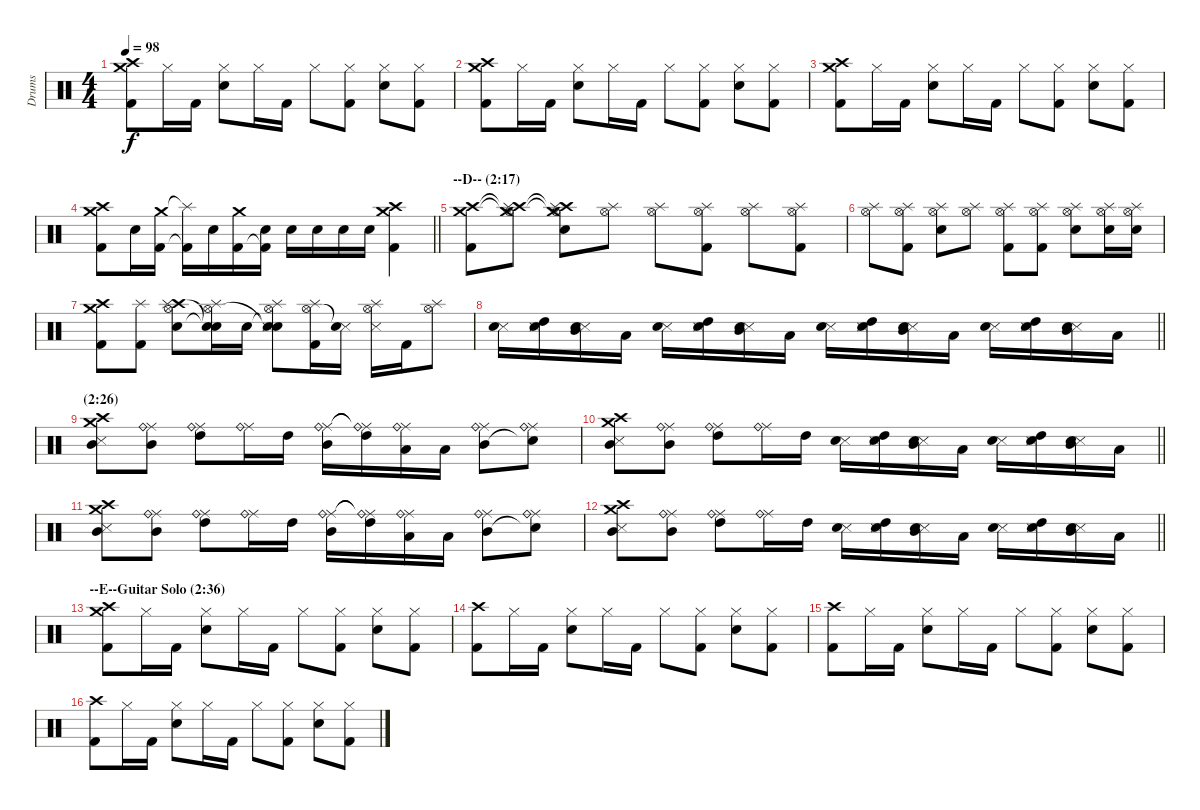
\track ("Drums" "Drums") {instrument percussion}
\staff {score}
\articulation defaults
\ts (4 4)
\tempo 98
\clef neutral
\ks c
("Crash high (hit)" "Crash medium (hit)" "Kick (hit) 2").8{dy f} "Hi-Hat (closed)".16 "Kick (hit) 2".16 ("Hi-Hat (closed)" "Electric Snare (hit)").8 "Hi-Hat (closed)".16 "Kick (hit) 2".16 "Hi-Hat (closed)".8 ("Hi-Hat (closed)" "Kick (hit) 2").8 ("Hi-Hat (closed)" "Electric Snare (hit)").8 ("Hi-Hat (closed)" "Kick (hit) 2").8 |
("Crash high (hit)" "Crash medium (hit)" "Kick (hit) 2").8 "Hi-Hat (closed)".16 "Kick (hit) 2".16 ("Hi-Hat (closed)" "Electric Snare (hit)").8 "Hi-Hat (closed)".16 "Kick (hit) 2".16 "Hi-Hat (closed)".8 ("Hi-Hat (closed)" "Kick (hit) 2").8 ("Hi-Hat (closed)" "Electric Snare (hit)").8 ("Hi-Hat (closed)" "Kick (hit) 2").8 |
("Crash high (hit)" "Crash medium (hit)" "Kick (hit) 2").8 "Hi-Hat (closed)".16 "Kick (hit) 2".16 ("Hi-Hat (closed)" "Electric Snare (hit)").8 "Hi-Hat (closed)".16 "Kick (hit) 2".16 "Hi-Hat (closed)".8 ("Hi-Hat (closed)" "Kick (hit) 2").8 ("Hi-Hat (closed)" "Electric Snare (hit)").8 ("Hi-Hat (closed)" "Kick (hit) 2").8 |
\barLineRight lightlight
("Crash high (hit)" "Crash medium (hit)" "Kick (hit) 2").8 "Electric Snare (hit)".16 ("Crash medium (hit)" "Kick (hit) 2").16 ("Splash (hit)"{t} "Kick (hit) 2"{t}).16 "Electric Snare (hit)".16 ("Crash medium (hit)" "Kick (hit) 2").16 ("Electric Snare (hit)" "Kick (hit) 2"{t}).16 "Electric Snare (hit)".16 "Electric Snare (hit)".16 "Electric Snare (hit)".16 "Electric Snare (hit)".16 ("Crash high (hit)" "Crash medium (hit)" "Kick (hit) 2").4 |
\section ("" "--D-- (2:17)")
("Crash high (hit)" "Crash medium (hit)" "Kick (hit) 2").8 ("Crash high (hit)"{t} "Crash medium (hit)"{t} "Hi-Hat (open)" "Splash (hit)").8 ("Crash high (hit)"{t} "Crash medium (hit)"{t} "Electric Snare (hit)" "Hi-Hat (open)" "Splash (hit)").8 ("Splash (hit)" "Hi-Hat (open)").8 ("Splash (hit)" "Hi-Hat (open)").8 ("Kick (hit) 2" "Hi-Hat (open)" "Splash (hit)").8 ("Splash (hit)" "Hi-Hat (open)").8 ("Kick (hit) 2" "Hi-Hat (open)" "Splash (hit)").8 |
("Hi-Hat (open)" "Splash (hit)").8 ("Kick (hit) 2" "Hi-Hat (open)" "Splash (hit)").8 ("Electric Snare (hit)" "Hi-Hat (open)" "Splash (hit)").8 ("Hi-Hat (open)" "Splash (hit)").8 ("Kick (hit) 2" "Hi-Hat (open)" "Splash (hit)").8 ("Kick (hit) 2" "Hi-Hat (open)" "Splash (hit)").8 ("Electric Snare (hit)" "Hi-Hat (open)" "Splash (hit)").8 ("Electric Snare (hit)" "Hi-Hat (open)" "Splash (hit)").16 ("Electric Snare (hit)" "Hi-Hat (open)" "Splash (hit)").16 |
("Crash high (hit)" "Crash medium (hit)" "Kick (hit) 2").8 ("Kick (hit) 2" "Splash (hit)").8 ("Crash high (hit)" "Electric Snare (hit)" "Hi-Hat (open)" "Splash (hit)").8 ("Snare (hit)"{t} "Snare (hit)"{t} "Hi-Hat (open)" "Splash (hit)").16 "Electric Snare (hit)".16 ("Snare (hit)"{t} "Snare (side stick) 3" "Snare (hit)"{t} "Hi-Hat (open)" "Splash (hit)").8 ("Kick (hit) 2" "Hi-Hat (open)" "Splash (hit)").16 ("Snare (side stick) 3" "Snare (hit)"{t}).16 ("Snare (side stick) 3" "Hi-Hat (open)" "Splash (hit)").16 "Kick (hit) 2".16 ("Hi-Hat (open)" "Splash (hit)").8 |
\barLineRight lightlight
("Snare (side stick) 3" "Electric Snare (hit)").16 ("Snare (side stick) 3" "Electric Snare (hit)" "High Tom (hit)").16 ("Snare (side stick) 3" "Electric Snare (hit)" "Mid Tom (hit)").16 "Low Tom (hit)".16 ("Snare (side stick) 3" "Electric Snare (hit)").16 ("Snare (side stick) 3" "Electric Snare (hit)" "High Tom (hit)").16 ("Snare (side stick) 3" "Electric Snare (hit)" "Mid Tom (hit)").16 "Low Tom (hit)".16 ("Snare (side stick) 3" "Electric Snare (hit)").16 ("Snare (side stick) 3" "Electric Snare (hit)" "High Tom (hit)").16 ("Snare (side stick) 3" "Electric Snare (hit)" "Mid Tom (hit)").16 "Low Tom (hit)".16 ("Snare (side stick) 3" "Electric Snare (hit)").16 ("Snare (side stick) 3" "Electric Snare (hit)" "High Tom (hit)").16 ("Snare (side stick) 3" "Electric Snare (hit)" "Mid Tom (hit)").16 "Low Tom (hit)".16 |
\section ("" "(2:26)")
("Crash high (hit)" "Crash medium (hit)" "Snare (side stick) 3" "Mid Tom (hit)").8 ("Ride (middle)" "Ride (bell)" "Mid Tom (hit)").8 ("Ride (middle)" "Ride (bell)" "High Tom (hit)").8 ("Ride (middle)" "Ride (bell)").16 "High Tom (hit)".16 ("Ride (middle)" "Ride (bell)" "Mid Tom (hit)").16 ("Ride (middle)"{t} "Ride (bell)"{t} "High Tom (hit)").16 ("Ride (middle)" "Ride (bell)" "Low Tom (hit)").16 "Low Tom (hit)".16 ("Ride (middle)" "Ride (bell)" "Mid Tom (hit)").8 ("Ride (middle)" "Ride (bell)" "Snare (hit)"{t}).8 |
\barLineRight lightlight
("Crash high (hit)" "Crash medium (hit)" "Snare (side stick) 3" "Mid Tom (hit)").8 ("Ride (middle)" "Ride (bell)" "Mid Tom (hit)").8 ("Ride (middle)" "Ride (bell)" "High Tom (hit)").8 ("Ride (middle)" "Ride (bell)").16 "High Tom (hit)".16 ("Snare (side stick) 3" "Electric Snare (hit)").16 ("Snare (side stick) 3" "Electric Snare (hit)" "High Tom (hit)").16 ("Snare (side stick) 3" "Electric Snare (hit)" "Mid Tom (hit)").16 "Low Tom (hit)".16 ("Snare (side stick) 3" "Electric Snare (hit)").16 ("Snare (side stick) 3" "Electric Snare (hit)" "High Tom (hit)").16 ("Snare (side stick) 3" "Electric Snare (hit)" "Mid Tom (hit)").16 "Low Tom (hit)".16 |
("Crash high (hit)" "Crash medium (hit)" "Snare (side stick) 3" "Mid Tom (hit)").8 ("Ride (middle)" "Ride (bell)" "Mid Tom (hit)").8 ("Ride (middle)" "Ride (bell)" "High Tom (hit)").8 ("Ride (middle)" "Ride (bell)").16 "High Tom (hit)".16 ("Ride (middle)" "Ride (bell)" "Mid Tom (hit)").16 ("Ride (middle)"{t} "Ride (bell)"{t} "High Tom (hit)").16 ("Ride (middle)" "Ride (bell)" "Low Tom (hit)").16 "Low Tom (hit)".16 ("Ride (middle)" "Ride (bell)" "Mid Tom (hit)").8 ("Ride (middle)" "Ride (bell)" "Snare (hit)"{t}).8 |
\barLineRight lightlight
("Crash high (hit)" "Crash medium (hit)" "Snare (side stick) 3" "Mid Tom (hit)").8 ("Ride (middle)" "Ride (bell)" "Mid Tom (hit)").8 ("Ride (middle)" "Ride (bell)" "High Tom (hit)").8 ("Ride (middle)" "Ride (bell)").16 "High Tom (hit)".16 ("Snare (side stick) 3" "Electric Snare (hit)").16 ("Snare (side stick) 3" "Electric Snare (hit)" "High Tom (hit)").16 ("Snare (side stick) 3" "Electric Snare (hit)" "Mid Tom (hit)").16 "Low Tom (hit)".16 ("Snare (side stick) 3" "Electric Snare (hit)").16 ("Snare (side stick) 3" "Electric Snare (hit)" "High Tom (hit)").16 ("Snare (side stick) 3" "Electric Snare (hit)" "Mid Tom (hit)").16 "Low Tom (hit)".16 |
\section ("" "--E--Guitar Solo (2:36)")
("Crash high (hit)" "Crash medium (hit)" "Kick (hit) 2").8 "Hi-Hat (closed)".16 "Kick (hit) 2".16 ("Hi-Hat (closed)" "Electric Snare (hit)").8 "Hi-Hat (closed)".16 "Kick (hit) 2".16 "Hi-Hat (closed)".8 ("Hi-Hat (closed)" "Kick (hit) 2").8 ("Hi-Hat (closed)" "Electric Snare (hit)").8 ("Hi-Hat (closed)" "Kick (hit) 2").8 |
("Crash high (hit)" "Kick (hit) 2").8 "Hi-Hat (closed)".16 "Kick (hit) 2".16 ("Hi-Hat (closed)" "Electric Snare (hit)").8 "Hi-Hat (closed)".16 "Kick (hit) 2".16 "Hi-Hat (closed)".8 ("Hi-Hat (closed)" "Kick (hit) 2").8 ("Hi-Hat (closed)" "Electric Snare (hit)").8 ("Hi-Hat (closed)" "Kick (hit) 2").8 |
("Crash high (hit)" "Kick (hit) 2").8 "Hi-Hat (closed)".16 "Kick (hit) 2".16 ("Hi-Hat (closed)" "Electric Snare (hit)").8 "Hi-Hat (closed)".16 "Kick (hit) 2".16 "Hi-Hat (closed)".8 ("Hi-Hat (closed)" "Kick (hit) 2").8 ("Hi-Hat (closed)" "Electric Snare (hit)").8 ("Hi-Hat (closed)" "Kick (hit) 2").8 |
("Crash high (hit)" "Kick (hit) 2").8 "Hi-Hat (closed)".16 "Kick (hit) 2".16 ("Hi-Hat (closed)" "Electric Snare (hit)").8 "Hi-Hat (closed)".16 "Kick (hit) 2".16 "Hi-Hat (closed)".8 ("Hi-Hat (closed)" "Kick (hit) 2").8 ("Hi-Hat (closed)" "Electric Snare (hit)").8 ("Hi-Hat (closed)" "Kick (hit) 2").8
